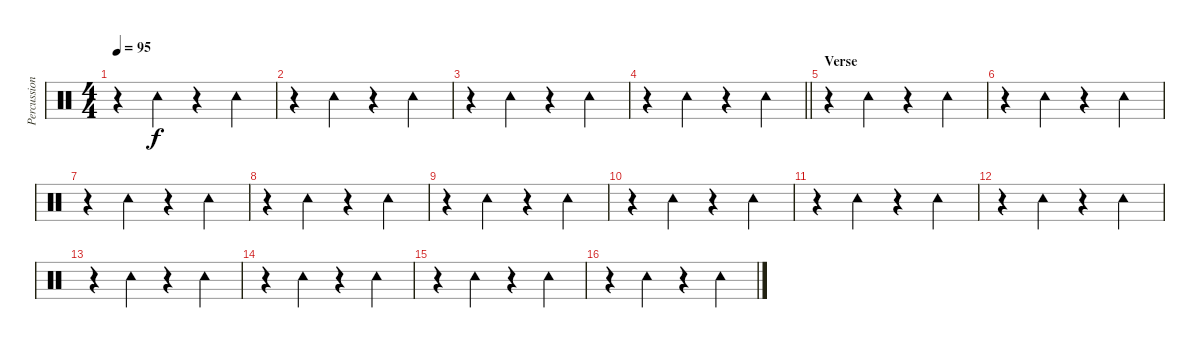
\track ("Percussioni" "Percussion") {instrument percussion}
\staff {score}
\articulation defaults
\ts (4 4)
\tempo 95
\clef neutral
\ks c
r.4{dy f} "Tambourine (hit)".4 r.4 "Tambourine (hit)".4 |
r.4 "Tambourine (hit)".4 r.4 "Tambourine (hit)".4 |
r.4 "Tambourine (hit)".4 r.4 "Tambourine (hit)".4 |
\barLineRight lightlight
r.4 "Tambourine (hit)".4 r.4 "Tambourine (hit)".4 |
\section ("" "Verse")
r.4 "Tambourine (hit)".4 r.4 "Tambourine (hit)".4 |
r.4 "Tambourine (hit)".4 r.4 "Tambourine (hit)".4 |
r.4 "Tambourine (hit)".4 r.4 "Tambourine (hit)".4 |
r.4 "Tambourine (hit)".4 r.4 "Tambourine (hit)".4 |
r.4 "Tambourine (hit)".4 r.4 "Tambourine (hit)".4 |
r.4 "Tambourine (hit)".4 r.4 "Tambourine (hit)".4 |
r.4 "Tambourine (hit)".4 r.4 "Tambourine (hit)".4 |
r.4 "Tambourine (hit)".4 r.4 "Tambourine (hit)".4 |
r.4 "Tambourine (hit)".4 r.4 "Tambourine (hit)".4 |
r.4 "Tambourine (hit)".4 r.4 "Tambourine (hit)".4 |
r.4 "Tambourine (hit)".4 r.4 "Tambourine (hit)".4 |
r.4 "Tambourine (hit)".4 r.4 "Tambourine (hit)".4
